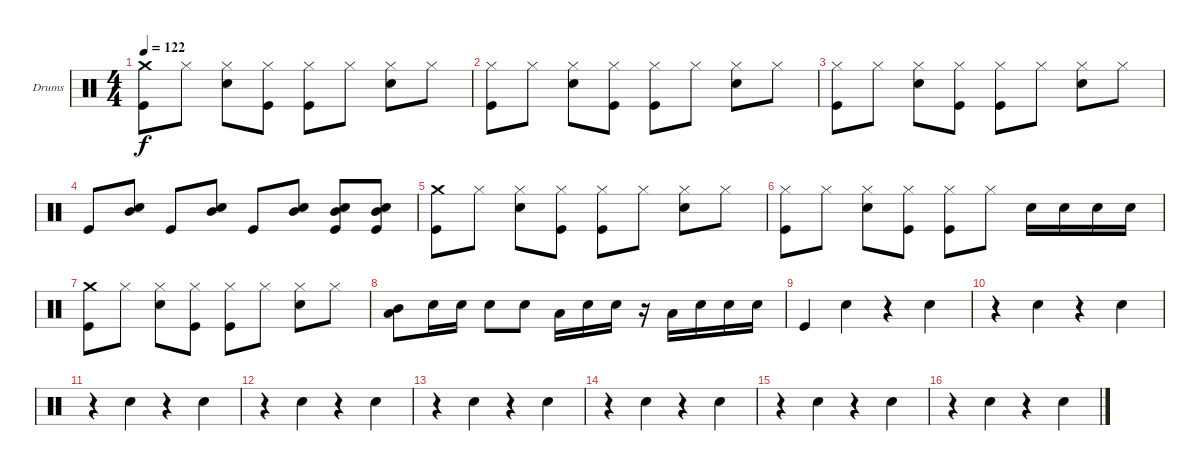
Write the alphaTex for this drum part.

\bracketExtendMode groupsimilarinstruments
\firstSystemTrackNameOrientation horizontal
\otherSystemsTrackNameOrientation horizontal
\track ("Drumkit" "Drums") {instrument percussion}
\staff {score}
\articulation defaults
\ts (4 4)
\tempo 122
\clef neutral
\ks c
("Crash medium (hit)" "Kick (hit)").8{dy f} "Hi-Hat (closed)".8 ("Hi-Hat (closed)" "Snare (hit) 2").8 ("Hi-Hat (closed)" "Kick (hit)").8 ("Hi-Hat (closed)" "Kick (hit)").8 "Hi-Hat (closed)".8 ("Hi-Hat (closed)" "Snare (hit) 2").8 "Hi-Hat (closed)".8 |
("Hi-Hat (closed)" "Kick (hit)").8 "Hi-Hat (closed)".8 ("Hi-Hat (closed)" "Snare (hit) 2").8 ("Hi-Hat (closed)" "Kick (hit)").8 ("Hi-Hat (closed)" "Kick (hit)").8 "Hi-Hat (closed)".8 ("Hi-Hat (closed)" "Snare (hit) 2").8 "Hi-Hat (closed)".8 |
("Hi-Hat (closed)" "Kick (hit)").8 "Hi-Hat (closed)".8 ("Hi-Hat (closed)" "Snare (hit) 2").8 ("Hi-Hat (closed)" "Kick (hit)").8 ("Hi-Hat (closed)" "Kick (hit)").8 "Hi-Hat (closed)".8 ("Hi-Hat (closed)" "Snare (hit) 2").8 "Hi-Hat (closed)".8 |
"Kick (hit)".8 ("Mid Tom (hit)" "Snare (hit) 2").8 "Kick (hit)".8 ("Mid Tom (hit)" "Snare (hit) 2").8 "Kick (hit)".8 ("Mid Tom (hit)" "Snare (hit) 2").8 ("Mid Tom (hit)" "Snare (hit) 2" "Kick (hit)").8 ("Mid Tom (hit)" "Snare (hit) 2" "Kick (hit)").8 |
("Crash medium (hit)" "Kick (hit)").8 "Hi-Hat (closed)".8 ("Hi-Hat (closed)" "Snare (hit) 2").8 ("Hi-Hat (closed)" "Kick (hit)").8 ("Hi-Hat (closed)" "Kick (hit)").8 "Hi-Hat (closed)".8 ("Hi-Hat (closed)" "Snare (hit) 2").8 "Hi-Hat (closed)".8 |
("Hi-Hat (closed)" "Kick (hit)").8 "Hi-Hat (closed)".8 ("Hi-Hat (closed)" "Snare (hit) 2").8 ("Hi-Hat (closed)" "Kick (hit)").8 ("Hi-Hat (closed)" "Kick (hit)").8 "Hi-Hat (closed)".8 "Snare (hit) 2".16 "Snare (hit) 2".16 "Snare (hit) 2".16 "Snare (hit) 2".16 |
("Crash medium (hit)" "Kick (hit)").8 "Hi-Hat (closed)".8 ("Hi-Hat (closed)" "Snare (hit) 2").8 ("Hi-Hat (closed)" "Kick (hit)").8 ("Hi-Hat (closed)" "Kick (hit)").8 "Hi-Hat (closed)".8 ("Hi-Hat (closed)" "Snare (hit) 2").8 "Hi-Hat (closed)".8 |
("Mid Tom (hit)" "Low Tom (hit)").8 "Snare (hit) 2".16 "Snare (hit) 2".16 "Snare (hit) 2".8 "Snare (hit) 2".8 "Low Tom (hit)".16 "Snare (hit) 2".16 "Snare (hit) 2".16 r.16 "Low Tom (hit)".16 "Snare (hit) 2".16 "Snare (hit) 2".16 "Snare (hit) 2".16 |
"Kick (hit)".4 "Snare (hit) 2".4 r.4 "Snare (hit) 2".4 |
r.4 "Snare (hit) 2".4 r.4 "Snare (hit) 2".4 |
r.4 "Snare (hit) 2".4 r.4 "Snare (hit) 2".4 |
r.4 "Snare (hit) 2".4 r.4 "Snare (hit) 2".4 |
r.4 "Snare (hit) 2".4 r.4 "Snare (hit) 2".4 |
r.4 "Snare (hit) 2".4 r.4 "Snare (hit) 2".4 |
r.4 "Snare (hit) 2".4 r.4 "Snare (hit) 2".4 |
r.4 "Snare (hit) 2".4 r.4 "Snare (hit) 2".4
